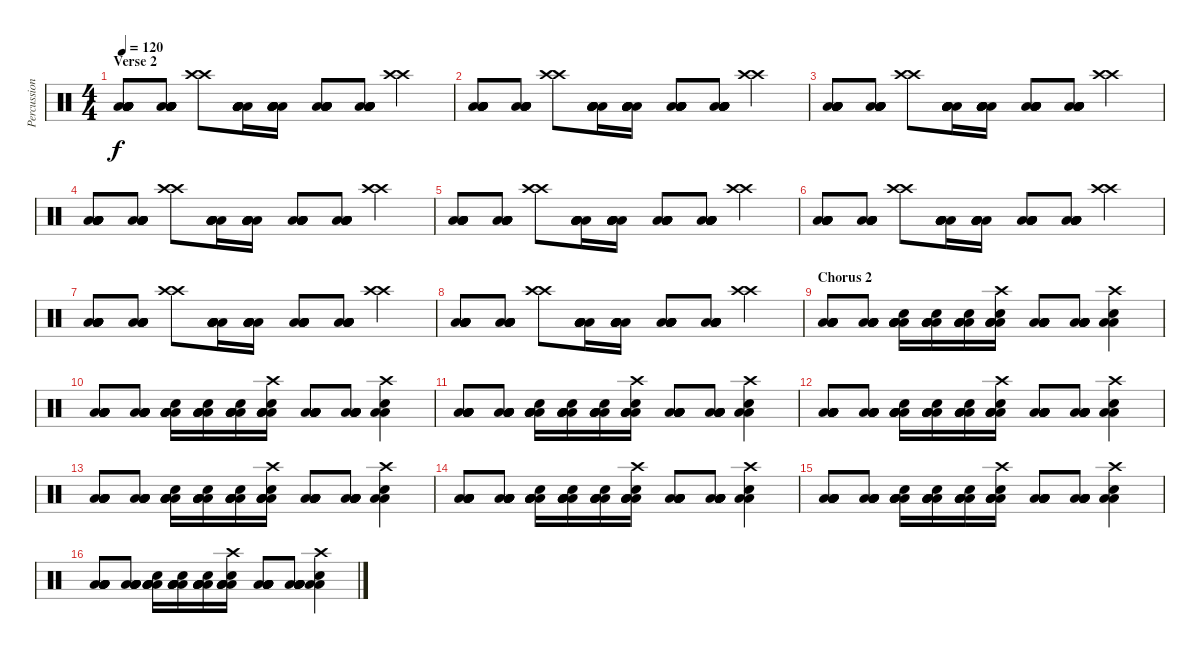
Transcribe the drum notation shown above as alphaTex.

\track ("Percussion" "Percussion") {instrument percussion}
\staff {score}
\articulation defaults
\ts (4 4)
\section ("" "Verse 2")
\tempo 120
\clef neutral
\ks c
("Low Tom (hit)" "Low Tom (hit)" "Low Tom (hit)" "Low Tom (hit)" "Low Tom (hit)" "Low Tom (hit)").8{dy f} ("Low Tom (hit)" "Low Tom (hit)" "Low Tom (hit)" "Low Tom (hit)" "Low Tom (hit)" "Low Tom (hit)").8 ("Crash high (hit)" "Crash high (hit)").8 ("Low Tom (hit)" "Low Tom (hit)" "Low Tom (hit)" "Low Tom (hit)" "Low Tom (hit)" "Low Tom (hit)").16 ("Low Tom (hit)" "Low Tom (hit)" "Low Tom (hit)" "Low Tom (hit)" "Low Tom (hit)" "Low Tom (hit)").16 ("Low Tom (hit)" "Low Tom (hit)" "Low Tom (hit)" "Low Tom (hit)" "Low Tom (hit)" "Low Tom (hit)").8 ("Low Tom (hit)" "Low Tom (hit)" "Low Tom (hit)" "Low Tom (hit)" "Low Tom (hit)" "Low Tom (hit)").8 ("Crash high (hit)" "Crash high (hit)").4 |
("Low Tom (hit)" "Low Tom (hit)" "Low Tom (hit)" "Low Tom (hit)" "Low Tom (hit)" "Low Tom (hit)").8 ("Low Tom (hit)" "Low Tom (hit)" "Low Tom (hit)" "Low Tom (hit)" "Low Tom (hit)" "Low Tom (hit)").8 ("Crash high (hit)" "Crash high (hit)").8 ("Low Tom (hit)" "Low Tom (hit)" "Low Tom (hit)" "Low Tom (hit)" "Low Tom (hit)" "Low Tom (hit)").16 ("Low Tom (hit)" "Low Tom (hit)" "Low Tom (hit)" "Low Tom (hit)" "Low Tom (hit)" "Low Tom (hit)").16 ("Low Tom (hit)" "Low Tom (hit)" "Low Tom (hit)" "Low Tom (hit)" "Low Tom (hit)" "Low Tom (hit)").8 ("Low Tom (hit)" "Low Tom (hit)" "Low Tom (hit)" "Low Tom (hit)" "Low Tom (hit)" "Low Tom (hit)").8 ("Crash high (hit)" "Crash high (hit)").4 |
("Low Tom (hit)" "Low Tom (hit)" "Low Tom (hit)" "Low Tom (hit)" "Low Tom (hit)" "Low Tom (hit)").8 ("Low Tom (hit)" "Low Tom (hit)" "Low Tom (hit)" "Low Tom (hit)" "Low Tom (hit)" "Low Tom (hit)").8 ("Crash high (hit)" "Crash high (hit)").8 ("Low Tom (hit)" "Low Tom (hit)" "Low Tom (hit)" "Low Tom (hit)" "Low Tom (hit)" "Low Tom (hit)").16 ("Low Tom (hit)" "Low Tom (hit)" "Low Tom (hit)" "Low Tom (hit)" "Low Tom (hit)" "Low Tom (hit)").16 ("Low Tom (hit)" "Low Tom (hit)" "Low Tom (hit)" "Low Tom (hit)" "Low Tom (hit)" "Low Tom (hit)").8 ("Low Tom (hit)" "Low Tom (hit)" "Low Tom (hit)" "Low Tom (hit)" "Low Tom (hit)" "Low Tom (hit)").8 ("Crash high (hit)" "Crash high (hit)").4 |
("Low Tom (hit)" "Low Tom (hit)" "Low Tom (hit)" "Low Tom (hit)" "Low Tom (hit)" "Low Tom (hit)").8 ("Low Tom (hit)" "Low Tom (hit)" "Low Tom (hit)" "Low Tom (hit)" "Low Tom (hit)" "Low Tom (hit)").8 ("Crash high (hit)" "Crash high (hit)").8 ("Low Tom (hit)" "Low Tom (hit)" "Low Tom (hit)" "Low Tom (hit)" "Low Tom (hit)" "Low Tom (hit)").16 ("Low Tom (hit)" "Low Tom (hit)" "Low Tom (hit)" "Low Tom (hit)" "Low Tom (hit)" "Low Tom (hit)").16 ("Low Tom (hit)" "Low Tom (hit)" "Low Tom (hit)" "Low Tom (hit)" "Low Tom (hit)" "Low Tom (hit)").8 ("Low Tom (hit)" "Low Tom (hit)" "Low Tom (hit)" "Low Tom (hit)" "Low Tom (hit)" "Low Tom (hit)").8 ("Crash high (hit)" "Crash high (hit)").4 |
("Low Tom (hit)" "Low Tom (hit)" "Low Tom (hit)" "Low Tom (hit)" "Low Tom (hit)" "Low Tom (hit)").8 ("Low Tom (hit)" "Low Tom (hit)" "Low Tom (hit)" "Low Tom (hit)" "Low Tom (hit)" "Low Tom (hit)").8 ("Crash high (hit)" "Crash high (hit)").8 ("Low Tom (hit)" "Low Tom (hit)" "Low Tom (hit)" "Low Tom (hit)" "Low Tom (hit)" "Low Tom (hit)").16 ("Low Tom (hit)" "Low Tom (hit)" "Low Tom (hit)" "Low Tom (hit)" "Low Tom (hit)" "Low Tom (hit)").16 ("Low Tom (hit)" "Low Tom (hit)" "Low Tom (hit)" "Low Tom (hit)" "Low Tom (hit)" "Low Tom (hit)").8 ("Low Tom (hit)" "Low Tom (hit)" "Low Tom (hit)" "Low Tom (hit)" "Low Tom (hit)" "Low Tom (hit)").8 ("Crash high (hit)" "Crash high (hit)").4 |
("Low Tom (hit)" "Low Tom (hit)" "Low Tom (hit)" "Low Tom (hit)" "Low Tom (hit)" "Low Tom (hit)").8 ("Low Tom (hit)" "Low Tom (hit)" "Low Tom (hit)" "Low Tom (hit)" "Low Tom (hit)" "Low Tom (hit)").8 ("Crash high (hit)" "Crash high (hit)").8 ("Low Tom (hit)" "Low Tom (hit)" "Low Tom (hit)" "Low Tom (hit)" "Low Tom (hit)" "Low Tom (hit)").16 ("Low Tom (hit)" "Low Tom (hit)" "Low Tom (hit)" "Low Tom (hit)" "Low Tom (hit)" "Low Tom (hit)").16 ("Low Tom (hit)" "Low Tom (hit)" "Low Tom (hit)" "Low Tom (hit)" "Low Tom (hit)" "Low Tom (hit)").8 ("Low Tom (hit)" "Low Tom (hit)" "Low Tom (hit)" "Low Tom (hit)" "Low Tom (hit)" "Low Tom (hit)").8 ("Crash high (hit)" "Crash high (hit)").4 |
("Low Tom (hit)" "Low Tom (hit)" "Low Tom (hit)" "Low Tom (hit)" "Low Tom (hit)" "Low Tom (hit)").8 ("Low Tom (hit)" "Low Tom (hit)" "Low Tom (hit)" "Low Tom (hit)" "Low Tom (hit)" "Low Tom (hit)").8 ("Crash high (hit)" "Crash high (hit)").8 ("Low Tom (hit)" "Low Tom (hit)" "Low Tom (hit)" "Low Tom (hit)" "Low Tom (hit)" "Low Tom (hit)").16 ("Low Tom (hit)" "Low Tom (hit)" "Low Tom (hit)" "Low Tom (hit)" "Low Tom (hit)" "Low Tom (hit)").16 ("Low Tom (hit)" "Low Tom (hit)" "Low Tom (hit)" "Low Tom (hit)" "Low Tom (hit)" "Low Tom (hit)").8 ("Low Tom (hit)" "Low Tom (hit)" "Low Tom (hit)" "Low Tom (hit)" "Low Tom (hit)" "Low Tom (hit)").8 ("Crash high (hit)" "Crash high (hit)").4 |
("Low Tom (hit)" "Low Tom (hit)" "Low Tom (hit)" "Low Tom (hit)" "Low Tom (hit)" "Low Tom (hit)").8 ("Low Tom (hit)" "Low Tom (hit)" "Low Tom (hit)" "Low Tom (hit)" "Low Tom (hit)" "Low Tom (hit)").8 ("Crash high (hit)" "Crash high (hit)").8 ("Low Tom (hit)" "Low Tom (hit)" "Low Tom (hit)" "Low Tom (hit)" "Low Tom (hit)" "Low Tom (hit)").16 ("Low Tom (hit)" "Low Tom (hit)" "Low Tom (hit)" "Low Tom (hit)" "Low Tom (hit)" "Low Tom (hit)").16 ("Low Tom (hit)" "Low Tom (hit)" "Low Tom (hit)" "Low Tom (hit)" "Low Tom (hit)" "Low Tom (hit)").8 ("Low Tom (hit)" "Low Tom (hit)" "Low Tom (hit)" "Low Tom (hit)" "Low Tom (hit)" "Low Tom (hit)").8 ("Crash high (hit)" "Crash high (hit)").4 |
\section ("" "Chorus 2")
("Low Floor Tom (hit)" "Low Floor Tom (hit)" "Low Floor Tom (hit)" "Low Floor Tom (hit)" "Low Floor Tom (hit)" "Low Floor Tom (hit)").8 ("Low Floor Tom (hit)" "Low Floor Tom (hit)" "Low Floor Tom (hit)" "Low Floor Tom (hit)" "Low Floor Tom (hit)" "Low Floor Tom (hit)").8 ("Low Floor Tom (hit)" "Low Floor Tom (hit)" "Low Floor Tom (hit)" "Snare (hit) 2" "Low Floor Tom (hit)" "Low Floor Tom (hit)").16 ("Low Floor Tom (hit)" "Low Floor Tom (hit)" "Low Floor Tom (hit)" "Snare (hit) 2" "Low Floor Tom (hit)" "Low Floor Tom (hit)").16 ("Low Floor Tom (hit)" "Low Floor Tom (hit)" "Low Floor Tom (hit)" "Snare (hit) 2" "Low Floor Tom (hit)" "Low Floor Tom (hit)").16 ("Crash high (hit)" "Low Floor Tom (hit)" "Low Floor Tom (hit)" "Snare (hit) 2" "Low Floor Tom (hit)" "Low Floor Tom (hit)").16 ("Low Floor Tom (hit)" "Low Floor Tom (hit)" "Low Floor Tom (hit)" "Low Floor Tom (hit)" "Low Floor Tom (hit)" "Low Floor Tom (hit)").8 ("Low Floor Tom (hit)" "Low Floor Tom (hit)" "Low Floor Tom (hit)" "Low Floor Tom (hit)" "Low Floor Tom (hit)" "Low Floor Tom (hit)").8 ("Low Floor Tom (hit)" "Crash high (hit)" "Snare (hit) 2" "Low Floor Tom (hit)").4 |
("Low Floor Tom (hit)" "Low Floor Tom (hit)" "Low Floor Tom (hit)" "Low Floor Tom (hit)" "Low Floor Tom (hit)" "Low Floor Tom (hit)").8 ("Low Floor Tom (hit)" "Low Floor Tom (hit)" "Low Floor Tom (hit)" "Low Floor Tom (hit)" "Low Floor Tom (hit)" "Low Floor Tom (hit)").8 ("Low Floor Tom (hit)" "Low Floor Tom (hit)" "Low Floor Tom (hit)" "Snare (hit) 2" "Low Floor Tom (hit)" "Low Floor Tom (hit)").16 ("Low Floor Tom (hit)" "Low Floor Tom (hit)" "Low Floor Tom (hit)" "Snare (hit) 2" "Low Floor Tom (hit)" "Low Floor Tom (hit)").16 ("Low Floor Tom (hit)" "Low Floor Tom (hit)" "Low Floor Tom (hit)" "Snare (hit) 2" "Low Floor Tom (hit)" "Low Floor Tom (hit)").16 ("Crash high (hit)" "Low Floor Tom (hit)" "Low Floor Tom (hit)" "Snare (hit) 2" "Low Floor Tom (hit)" "Low Floor Tom (hit)").16 ("Low Floor Tom (hit)" "Low Floor Tom (hit)" "Low Floor Tom (hit)" "Low Floor Tom (hit)" "Low Floor Tom (hit)" "Low Floor Tom (hit)").8 ("Low Floor Tom (hit)" "Low Floor Tom (hit)" "Low Floor Tom (hit)" "Low Floor Tom (hit)" "Low Floor Tom (hit)" "Low Floor Tom (hit)").8 ("Low Floor Tom (hit)" "Crash high (hit)" "Snare (hit) 2" "Low Floor Tom (hit)").4 |
("Low Floor Tom (hit)" "Low Floor Tom (hit)" "Low Floor Tom (hit)" "Low Floor Tom (hit)" "Low Floor Tom (hit)" "Low Floor Tom (hit)").8 ("Low Floor Tom (hit)" "Low Floor Tom (hit)" "Low Floor Tom (hit)" "Low Floor Tom (hit)" "Low Floor Tom (hit)" "Low Floor Tom (hit)").8 ("Low Floor Tom (hit)" "Low Floor Tom (hit)" "Low Floor Tom (hit)" "Snare (hit) 2" "Low Floor Tom (hit)" "Low Floor Tom (hit)").16 ("Low Floor Tom (hit)" "Low Floor Tom (hit)" "Low Floor Tom (hit)" "Snare (hit) 2" "Low Floor Tom (hit)" "Low Floor Tom (hit)").16 ("Low Floor Tom (hit)" "Low Floor Tom (hit)" "Low Floor Tom (hit)" "Snare (hit) 2" "Low Floor Tom (hit)" "Low Floor Tom (hit)").16 ("Crash high (hit)" "Low Floor Tom (hit)" "Low Floor Tom (hit)" "Snare (hit) 2" "Low Floor Tom (hit)" "Low Floor Tom (hit)").16 ("Low Floor Tom (hit)" "Low Floor Tom (hit)" "Low Floor Tom (hit)" "Low Floor Tom (hit)" "Low Floor Tom (hit)" "Low Floor Tom (hit)").8 ("Low Floor Tom (hit)" "Low Floor Tom (hit)" "Low Floor Tom (hit)" "Low Floor Tom (hit)" "Low Floor Tom (hit)" "Low Floor Tom (hit)").8 ("Low Floor Tom (hit)" "Crash high (hit)" "Snare (hit) 2" "Low Floor Tom (hit)").4 |
("Low Floor Tom (hit)" "Low Floor Tom (hit)" "Low Floor Tom (hit)" "Low Floor Tom (hit)" "Low Floor Tom (hit)" "Low Floor Tom (hit)").8 ("Low Floor Tom (hit)" "Low Floor Tom (hit)" "Low Floor Tom (hit)" "Low Floor Tom (hit)" "Low Floor Tom (hit)" "Low Floor Tom (hit)").8 ("Low Floor Tom (hit)" "Low Floor Tom (hit)" "Low Floor Tom (hit)" "Snare (hit) 2" "Low Floor Tom (hit)" "Low Floor Tom (hit)").16 ("Low Floor Tom (hit)" "Low Floor Tom (hit)" "Low Floor Tom (hit)" "Snare (hit) 2" "Low Floor Tom (hit)" "Low Floor Tom (hit)").16 ("Low Floor Tom (hit)" "Low Floor Tom (hit)" "Low Floor Tom (hit)" "Snare (hit) 2" "Low Floor Tom (hit)" "Low Floor Tom (hit)").16 ("Crash high (hit)" "Low Floor Tom (hit)" "Low Floor Tom (hit)" "Snare (hit) 2" "Low Floor Tom (hit)" "Low Floor Tom (hit)").16 ("Low Floor Tom (hit)" "Low Floor Tom (hit)" "Low Floor Tom (hit)" "Low Floor Tom (hit)" "Low Floor Tom (hit)" "Low Floor Tom (hit)").8 ("Low Floor Tom (hit)" "Low Floor Tom (hit)" "Low Floor Tom (hit)" "Low Floor Tom (hit)" "Low Floor Tom (hit)" "Low Floor Tom (hit)").8 ("Low Floor Tom (hit)" "Crash high (hit)" "Snare (hit) 2" "Low Floor Tom (hit)").4 |
("Low Floor Tom (hit)" "Low Floor Tom (hit)" "Low Floor Tom (hit)" "Low Floor Tom (hit)" "Low Floor Tom (hit)" "Low Floor Tom (hit)").8 ("Low Floor Tom (hit)" "Low Floor Tom (hit)" "Low Floor Tom (hit)" "Low Floor Tom (hit)" "Low Floor Tom (hit)" "Low Floor Tom (hit)").8 ("Low Floor Tom (hit)" "Low Floor Tom (hit)" "Low Floor Tom (hit)" "Snare (hit) 2" "Low Floor Tom (hit)" "Low Floor Tom (hit)").16 ("Low Floor Tom (hit)" "Low Floor Tom (hit)" "Low Floor Tom (hit)" "Snare (hit) 2" "Low Floor Tom (hit)" "Low Floor Tom (hit)").16 ("Low Floor Tom (hit)" "Low Floor Tom (hit)" "Low Floor Tom (hit)" "Snare (hit) 2" "Low Floor Tom (hit)" "Low Floor Tom (hit)").16 ("Crash high (hit)" "Low Floor Tom (hit)" "Low Floor Tom (hit)" "Snare (hit) 2" "Low Floor Tom (hit)" "Low Floor Tom (hit)").16 ("Low Floor Tom (hit)" "Low Floor Tom (hit)" "Low Floor Tom (hit)" "Low Floor Tom (hit)" "Low Floor Tom (hit)" "Low Floor Tom (hit)").8 ("Low Floor Tom (hit)" "Low Floor Tom (hit)" "Low Floor Tom (hit)" "Low Floor Tom (hit)" "Low Floor Tom (hit)" "Low Floor Tom (hit)").8 ("Low Floor Tom (hit)" "Crash high (hit)" "Snare (hit) 2" "Low Floor Tom (hit)").4 |
("Low Floor Tom (hit)" "Low Floor Tom (hit)" "Low Floor Tom (hit)" "Low Floor Tom (hit)" "Low Floor Tom (hit)" "Low Floor Tom (hit)").8 ("Low Floor Tom (hit)" "Low Floor Tom (hit)" "Low Floor Tom (hit)" "Low Floor Tom (hit)" "Low Floor Tom (hit)" "Low Floor Tom (hit)").8 ("Low Floor Tom (hit)" "Low Floor Tom (hit)" "Low Floor Tom (hit)" "Snare (hit) 2" "Low Floor Tom (hit)" "Low Floor Tom (hit)").16 ("Low Floor Tom (hit)" "Low Floor Tom (hit)" "Low Floor Tom (hit)" "Snare (hit) 2" "Low Floor Tom (hit)" "Low Floor Tom (hit)").16 ("Low Floor Tom (hit)" "Low Floor Tom (hit)" "Low Floor Tom (hit)" "Snare (hit) 2" "Low Floor Tom (hit)" "Low Floor Tom (hit)").16 ("Crash high (hit)" "Low Floor Tom (hit)" "Low Floor Tom (hit)" "Snare (hit) 2" "Low Floor Tom (hit)" "Low Floor Tom (hit)").16 ("Low Floor Tom (hit)" "Low Floor Tom (hit)" "Low Floor Tom (hit)" "Low Floor Tom (hit)" "Low Floor Tom (hit)" "Low Floor Tom (hit)").8 ("Low Floor Tom (hit)" "Low Floor Tom (hit)" "Low Floor Tom (hit)" "Low Floor Tom (hit)" "Low Floor Tom (hit)" "Low Floor Tom (hit)").8 ("Low Floor Tom (hit)" "Crash high (hit)" "Snare (hit) 2" "Low Floor Tom (hit)").4 |
("Low Floor Tom (hit)" "Low Floor Tom (hit)" "Low Floor Tom (hit)" "Low Floor Tom (hit)" "Low Floor Tom (hit)" "Low Floor Tom (hit)").8 ("Low Floor Tom (hit)" "Low Floor Tom (hit)" "Low Floor Tom (hit)" "Low Floor Tom (hit)" "Low Floor Tom (hit)" "Low Floor Tom (hit)").8 ("Low Floor Tom (hit)" "Low Floor Tom (hit)" "Low Floor Tom (hit)" "Snare (hit) 2" "Low Floor Tom (hit)" "Low Floor Tom (hit)").16 ("Low Floor Tom (hit)" "Low Floor Tom (hit)" "Low Floor Tom (hit)" "Snare (hit) 2" "Low Floor Tom (hit)" "Low Floor Tom (hit)").16 ("Low Floor Tom (hit)" "Low Floor Tom (hit)" "Low Floor Tom (hit)" "Snare (hit) 2" "Low Floor Tom (hit)" "Low Floor Tom (hit)").16 ("Crash high (hit)" "Low Floor Tom (hit)" "Low Floor Tom (hit)" "Snare (hit) 2" "Low Floor Tom (hit)" "Low Floor Tom (hit)").16 ("Low Floor Tom (hit)" "Low Floor Tom (hit)" "Low Floor Tom (hit)" "Low Floor Tom (hit)" "Low Floor Tom (hit)" "Low Floor Tom (hit)").8 ("Low Floor Tom (hit)" "Low Floor Tom (hit)" "Low Floor Tom (hit)" "Low Floor Tom (hit)" "Low Floor Tom (hit)" "Low Floor Tom (hit)").8 ("Low Floor Tom (hit)" "Crash high (hit)" "Snare (hit) 2" "Low Floor Tom (hit)").4 |
("Low Floor Tom (hit)" "Low Floor Tom (hit)" "Low Floor Tom (hit)" "Low Floor Tom (hit)" "Low Floor Tom (hit)" "Low Floor Tom (hit)").8 ("Low Floor Tom (hit)" "Low Floor Tom (hit)" "Low Floor Tom (hit)" "Low Floor Tom (hit)" "Low Floor Tom (hit)" "Low Floor Tom (hit)").8 ("Low Floor Tom (hit)" "Low Floor Tom (hit)" "Low Floor Tom (hit)" "Snare (hit) 2" "Low Floor Tom (hit)" "Low Floor Tom (hit)").16 ("Low Floor Tom (hit)" "Low Floor Tom (hit)" "Low Floor Tom (hit)" "Snare (hit) 2" "Low Floor Tom (hit)" "Low Floor Tom (hit)").16 ("Low Floor Tom (hit)" "Low Floor Tom (hit)" "Low Floor Tom (hit)" "Snare (hit) 2" "Low Floor Tom (hit)" "Low Floor Tom (hit)").16 ("Crash high (hit)" "Low Floor Tom (hit)" "Low Floor Tom (hit)" "Snare (hit) 2" "Low Floor Tom (hit)" "Low Floor Tom (hit)").16 ("Low Floor Tom (hit)" "Low Floor Tom (hit)" "Low Floor Tom (hit)" "Low Floor Tom (hit)" "Low Floor Tom (hit)" "Low Floor Tom (hit)").8 ("Low Floor Tom (hit)" "Low Floor Tom (hit)" "Low Floor Tom (hit)" "Low Floor Tom (hit)" "Low Floor Tom (hit)" "Low Floor Tom (hit)").8 ("Low Floor Tom (hit)" "Crash high (hit)" "Snare (hit) 2" "Low Floor Tom (hit)").4
